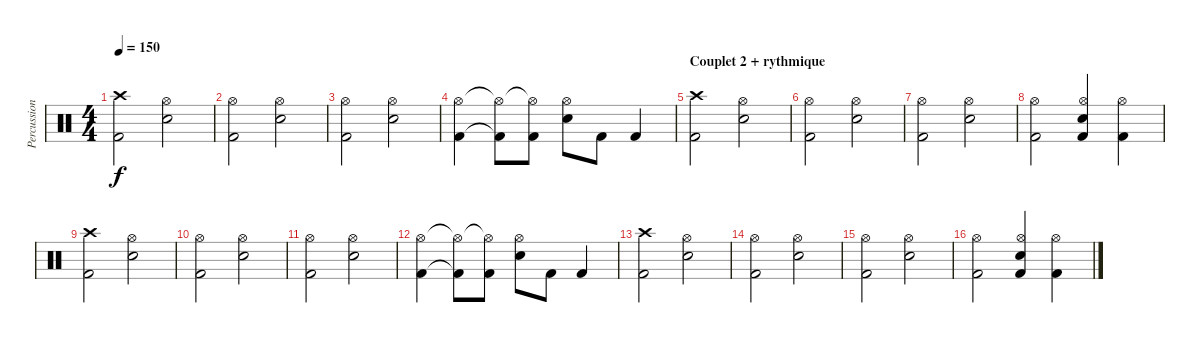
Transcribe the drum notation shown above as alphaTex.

\track ("Percussions" "Percussion") {instrument percussion}
\staff {score}
\articulation defaults
\ts (4 4)
\tempo 150
\clef neutral
\ks c
("Crash high (hit)" "Kick (hit) 2").2{dy f} ("Hi-Hat (open)" "Snare (hit) 2").2 |
("Hi-Hat (open)" "Kick (hit) 2").2 ("Hi-Hat (open)" "Snare (hit) 2").2 |
("Hi-Hat (open)" "Kick (hit) 2").2 ("Hi-Hat (open)" "Snare (hit) 2").2 |
("Hi-Hat (open)" "Kick (hit) 2").4 ("Hi-Hat (open)"{t} "Kick (hit) 2"{t}).8 ("Hi-Hat (open)"{t} "Kick (hit) 2").8 ("Hi-Hat (open)" "Snare (hit) 2").8 "Kick (hit) 2".8 "Kick (hit) 2".4 |
\section ("" "Couplet 2 + rythmique")
("Crash high (hit)" "Kick (hit) 2").2 ("Hi-Hat (open)" "Snare (hit) 2").2 |
("Hi-Hat (open)" "Kick (hit) 2").2 ("Hi-Hat (open)" "Snare (hit) 2").2 |
("Hi-Hat (open)" "Kick (hit) 2").2 ("Hi-Hat (open)" "Snare (hit) 2").2 |
("Hi-Hat (open)" "Kick (hit) 2").2 ("Hi-Hat (open)" "Snare (hit) 2" "Kick (hit) 2").4 ("Hi-Hat (open)" "Kick (hit) 2").4 |
("Crash high (hit)" "Kick (hit) 2").2 ("Hi-Hat (open)" "Snare (hit) 2").2 |
("Hi-Hat (open)" "Kick (hit) 2").2 ("Hi-Hat (open)" "Snare (hit) 2").2 |
("Hi-Hat (open)" "Kick (hit) 2").2 ("Hi-Hat (open)" "Snare (hit) 2").2 |
("Hi-Hat (open)" "Kick (hit) 2").4 ("Hi-Hat (open)"{t} "Kick (hit) 2"{t}).8 ("Hi-Hat (open)"{t} "Kick (hit) 2").8 ("Hi-Hat (open)" "Snare (hit) 2").8 "Kick (hit) 2".8 "Kick (hit) 2".4 |
("Crash high (hit)" "Kick (hit) 2").2 ("Hi-Hat (open)" "Snare (hit) 2").2 |
("Hi-Hat (open)" "Kick (hit) 2").2 ("Hi-Hat (open)" "Snare (hit) 2").2 |
("Hi-Hat (open)" "Kick (hit) 2").2 ("Hi-Hat (open)" "Snare (hit) 2").2 |
("Hi-Hat (open)" "Kick (hit) 2").2 ("Hi-Hat (open)" "Snare (hit) 2" "Kick (hit) 2").4 ("Hi-Hat (open)" "Kick (hit) 2").4
